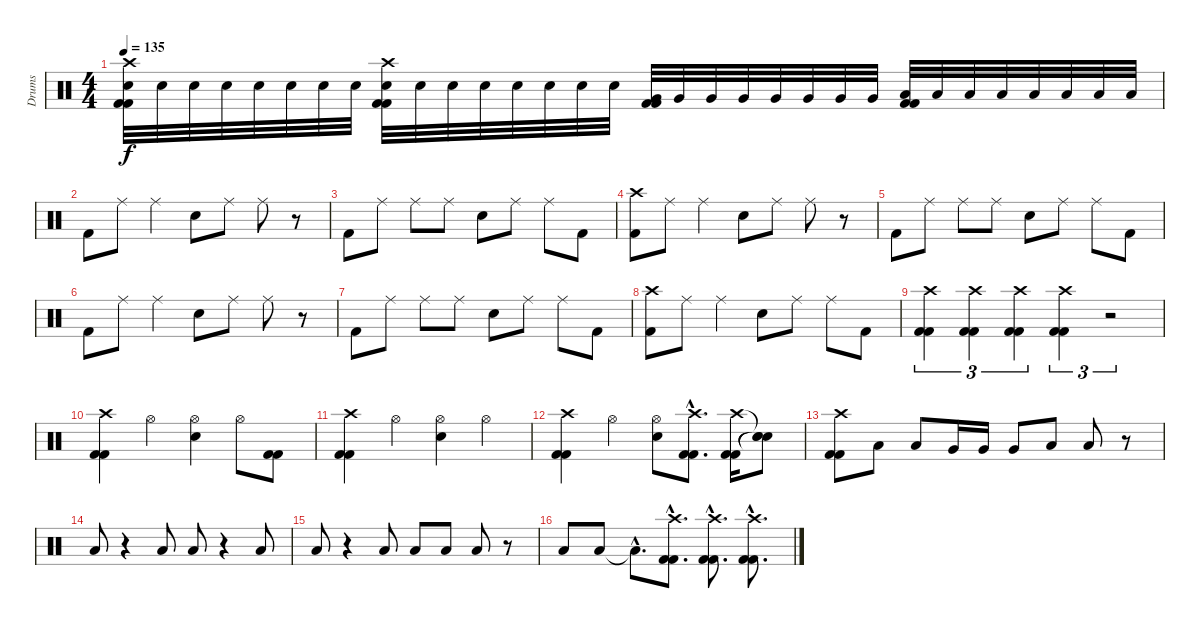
\track ("Drums" "Drums") {instrument percussion}
\staff {score}
\articulation defaults
\ts (4 4)
\tempo 135
\clef neutral
\ks c
("Crash high (hit)" "Electric Snare (hit)" "Kick (hit) 2" "Kick (hit) 2").32{dy f} "Electric Snare (hit)".32 "Electric Snare (hit)".32 "Electric Snare (hit)".32 "Electric Snare (hit)".32 "Electric Snare (hit)".32 "Electric Snare (hit)".32 "Electric Snare (hit)".32 ("Crash high (hit)" "Electric Snare (hit)" "Kick (hit) 2" "Kick (hit) 2").32 "Electric Snare (hit)".32 "Electric Snare (hit)".32 "Electric Snare (hit)".32 "Electric Snare (hit)".32 "Electric Snare (hit)".32 "Electric Snare (hit)".32 "Electric Snare (hit)".32 ("Very Low Tom (hit)" "Kick (hit) 2" "Kick (hit) 2").32 "Very Low Tom (hit)".32 "Very Low Tom (hit)".32 "Very Low Tom (hit)".32 "Very Low Tom (hit)".32 "Very Low Tom (hit)".32 "Very Low Tom (hit)".32 "Very Low Tom (hit)".32 ("Low Floor Tom (hit)" "Kick (hit) 2" "Kick (hit) 2").32 "Low Floor Tom (hit)".32 "Low Floor Tom (hit)".32 "Low Floor Tom (hit)".32 "Low Floor Tom (hit)".32 "Low Floor Tom (hit)".32 "Low Floor Tom (hit)".32 "Low Floor Tom (hit)".32 |
"Kick (hit) 2".8 "Ride (middle)".8 "Ride (middle)".4 "Electric Snare (hit)".8 "Ride (middle)".8 "Ride (middle)".8 r.8 |
"Kick (hit) 2".8 "Ride (middle)".8 "Ride (middle)".8 "Ride (middle)".8 "Electric Snare (hit)".8 "Ride (middle)".8 "Ride (middle)".8 "Kick (hit) 2".8 |
("Crash high (hit)" "Kick (hit) 2").8 "Ride (middle)".8 "Ride (middle)".4 "Electric Snare (hit)".8 "Ride (middle)".8 "Ride (middle)".8 r.8 |
"Kick (hit) 2".8 "Ride (middle)".8 "Ride (middle)".8 "Ride (middle)".8 "Electric Snare (hit)".8 "Ride (middle)".8 "Ride (middle)".8 "Kick (hit) 2".8 |
"Kick (hit) 2".8 "Ride (middle)".8 "Ride (middle)".4 "Electric Snare (hit)".8 "Ride (middle)".8 "Ride (middle)".8 r.8 |
"Kick (hit) 2".8 "Ride (middle)".8 "Ride (middle)".8 "Ride (middle)".8 "Electric Snare (hit)".8 "Ride (middle)".8 "Ride (middle)".8 "Kick (hit) 2".8 |
("Crash high (hit)" "Kick (hit) 2").8 "Ride (middle)".8 "Ride (middle)".4 "Electric Snare (hit)".8 "Ride (middle)".8 "Ride (middle)".8 "Kick (hit) 2".8 |
("Crash high (hit)" "Kick (hit) 2" "Kick (hit) 2").4{tu (3 2)} ("Crash high (hit)" "Kick (hit) 2" "Kick (hit) 2").4{tu (3 2)} ("Crash high (hit)" "Kick (hit) 2" "Kick (hit) 2").4{tu (3 2)} ("Crash high (hit)" "Kick (hit) 2" "Kick (hit) 2").4{tu (3 2)} r.2{tu (3 2)} |
("Crash high (hit)" "Kick (hit) 2" "Kick (hit) 2").4 "Hi-Hat (open)".4 ("Hi-Hat (open)" "Electric Snare (hit)").4 "Hi-Hat (open)".8 ("Kick (hit) 2" "Kick (hit) 2").8 |
("Crash high (hit)" "Kick (hit) 2" "Kick (hit) 2").4 "Hi-Hat (open)".4 ("Hi-Hat (open)" "Electric Snare (hit)").4 "Hi-Hat (open)".4 |
("Crash high (hit)" "Kick (hit) 2" "Kick (hit) 2").4 "Hi-Hat (open)".4 ("Hi-Hat (open)" "Electric Snare (hit)").8 ("Crash high (hit)"{hac} "Kick (hit) 2"{hac} "Kick (hit) 2"{hac}).8{d} ("Crash high (hit)" "Kick (hit) 2" "Kick (hit) 2").16 ("Snare (hit)"{t} "Snare (hit)"{t} "Snare (hit)"{t}).8 |
("Crash high (hit)" "Kick (hit) 2" "Kick (hit) 2").8 "Low Tom (hit)".8 "Low Tom (hit)".8 "Very Low Tom (hit)".16 "Very Low Tom (hit)".16 "Very Low Tom (hit)".8 "Low Floor Tom (hit)".8 "Low Floor Tom (hit)".8 r.8 |
"Low Floor Tom (hit)".8 r.4 "Low Floor Tom (hit)".8 "Low Floor Tom (hit)".8 r.4 "Low Floor Tom (hit)".8 |
"Low Floor Tom (hit)".8 r.4 "Low Floor Tom (hit)".8 "Low Floor Tom (hit)".8 "Low Floor Tom (hit)".8 "Low Floor Tom (hit)".8 r.8 |
"Low Floor Tom (hit)".8 "Low Floor Tom (hit)".8 "Low Floor Tom (hit)"{hac t}.8{d} ("Crash high (hit)"{hac} "Kick (hit) 2"{hac} "Kick (hit) 2"{hac}).8{d} ("Crash high (hit)"{hac} "Kick (hit) 2"{hac} "Kick (hit) 2"{hac}).8{d} ("Crash high (hit)"{hac} "Kick (hit) 2"{hac} "Kick (hit) 2"{hac}).8{d}
